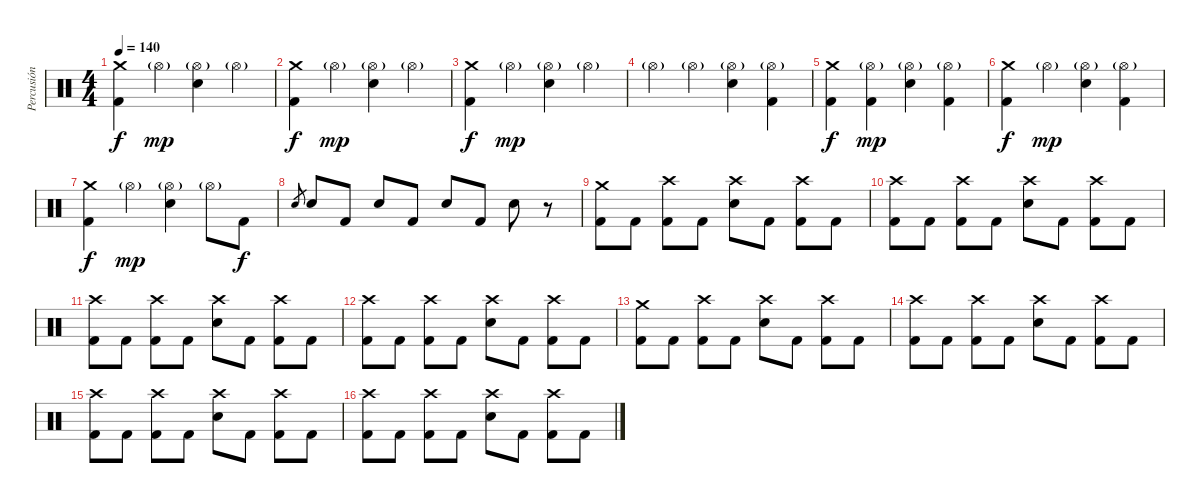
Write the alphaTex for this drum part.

\track ("Percusión" "Percusión") {instrument percussion}
\staff {score}
\articulation defaults
\ts (4 4)
\tempo 140
\clef neutral
\ks c
("Crash medium (hit)" "Kick (hit) 2").4{dy f} "Hi-Hat (open)"{g}.4{dy mp} ("Hi-Hat (open)"{g} "Electric Snare (hit)").4 "Hi-Hat (open)"{g}.4 |
("Crash medium (hit)" "Kick (hit) 2").4{dy f} "Hi-Hat (open)"{g}.4{dy mp} ("Hi-Hat (open)"{g} "Electric Snare (hit)").4 "Hi-Hat (open)"{g}.4 |
("Crash medium (hit)" "Kick (hit) 2").4{dy f} "Hi-Hat (open)"{g}.4{dy mp} ("Hi-Hat (open)"{g} "Electric Snare (hit)").4 "Hi-Hat (open)"{g}.4 |
"Hi-Hat (open)"{g}.4 "Hi-Hat (open)"{g}.4 ("Hi-Hat (open)"{g} "Electric Snare (hit)").4 ("Hi-Hat (open)"{g} "Kick (hit) 2").4 |
("Crash medium (hit)" "Kick (hit) 2").4{dy f} ("Hi-Hat (open)"{g} "Kick (hit) 2").4{dy mp} ("Hi-Hat (open)"{g} "Electric Snare (hit)").4 ("Hi-Hat (open)"{g} "Kick (hit) 2").4 |
("Crash medium (hit)" "Kick (hit) 2").4{dy f} "Hi-Hat (open)"{g}.4{dy mp} ("Hi-Hat (open)"{g} "Electric Snare (hit)").4 ("Hi-Hat (open)"{g} "Kick (hit) 2").4 |
("Crash medium (hit)" "Kick (hit) 2").4{dy f} "Hi-Hat (open)"{g}.4{dy mp} ("Hi-Hat (open)"{g} "Electric Snare (hit)").4 "Hi-Hat (open)"{g}.8 "Kick (hit) 2".8{dy f} |
"Electric Snare (hit)".8{gr} "Electric Snare (hit)".8 "Kick (hit) 2".8 "Electric Snare (hit)".8 "Kick (hit) 2".8 "Electric Snare (hit)".8 "Kick (hit) 2".8 "Electric Snare (hit)".8 r.8 |
("Crash medium (hit)" "Kick (hit) 2").8 "Kick (hit) 2".8 ("Crash high (hit)" "Kick (hit) 2").8 "Kick (hit) 2".8 ("Crash high (hit)" "Electric Snare (hit)").8 "Kick (hit) 2".8 ("Crash high (hit)" "Kick (hit) 2").8 "Kick (hit) 2".8 |
("Crash high (hit)" "Kick (hit) 2").8 "Kick (hit) 2".8 ("Crash high (hit)" "Kick (hit) 2").8 "Kick (hit) 2".8 ("Crash high (hit)" "Electric Snare (hit)").8 "Kick (hit) 2".8 ("Crash high (hit)" "Kick (hit) 2").8 "Kick (hit) 2".8 |
("Crash high (hit)" "Kick (hit) 2").8 "Kick (hit) 2".8 ("Crash high (hit)" "Kick (hit) 2").8 "Kick (hit) 2".8 ("Crash high (hit)" "Electric Snare (hit)").8 "Kick (hit) 2".8 ("Crash high (hit)" "Kick (hit) 2").8 "Kick (hit) 2".8 |
("Crash high (hit)" "Kick (hit) 2").8 "Kick (hit) 2".8 ("Crash high (hit)" "Kick (hit) 2").8 "Kick (hit) 2".8 ("Crash high (hit)" "Electric Snare (hit)").8 "Kick (hit) 2".8 ("Crash high (hit)" "Kick (hit) 2").8 "Kick (hit) 2".8 |
("Crash medium (hit)" "Kick (hit) 2").8 "Kick (hit) 2".8 ("Crash high (hit)" "Kick (hit) 2").8 "Kick (hit) 2".8 ("Crash high (hit)" "Electric Snare (hit)").8 "Kick (hit) 2".8 ("Crash high (hit)" "Kick (hit) 2").8 "Kick (hit) 2".8 |
("Crash high (hit)" "Kick (hit) 2").8 "Kick (hit) 2".8 ("Crash high (hit)" "Kick (hit) 2").8 "Kick (hit) 2".8 ("Crash high (hit)" "Electric Snare (hit)").8 "Kick (hit) 2".8 ("Crash high (hit)" "Kick (hit) 2").8 "Kick (hit) 2".8 |
("Crash high (hit)" "Kick (hit) 2").8 "Kick (hit) 2".8 ("Crash high (hit)" "Kick (hit) 2").8 "Kick (hit) 2".8 ("Crash high (hit)" "Electric Snare (hit)").8 "Kick (hit) 2".8 ("Crash high (hit)" "Kick (hit) 2").8 "Kick (hit) 2".8 |
("Crash high (hit)" "Kick (hit) 2").8 "Kick (hit) 2".8 ("Crash high (hit)" "Kick (hit) 2").8 "Kick (hit) 2".8 ("Crash high (hit)" "Electric Snare (hit)").8 "Kick (hit) 2".8 ("Crash high (hit)" "Kick (hit) 2").8 "Kick (hit) 2".8
